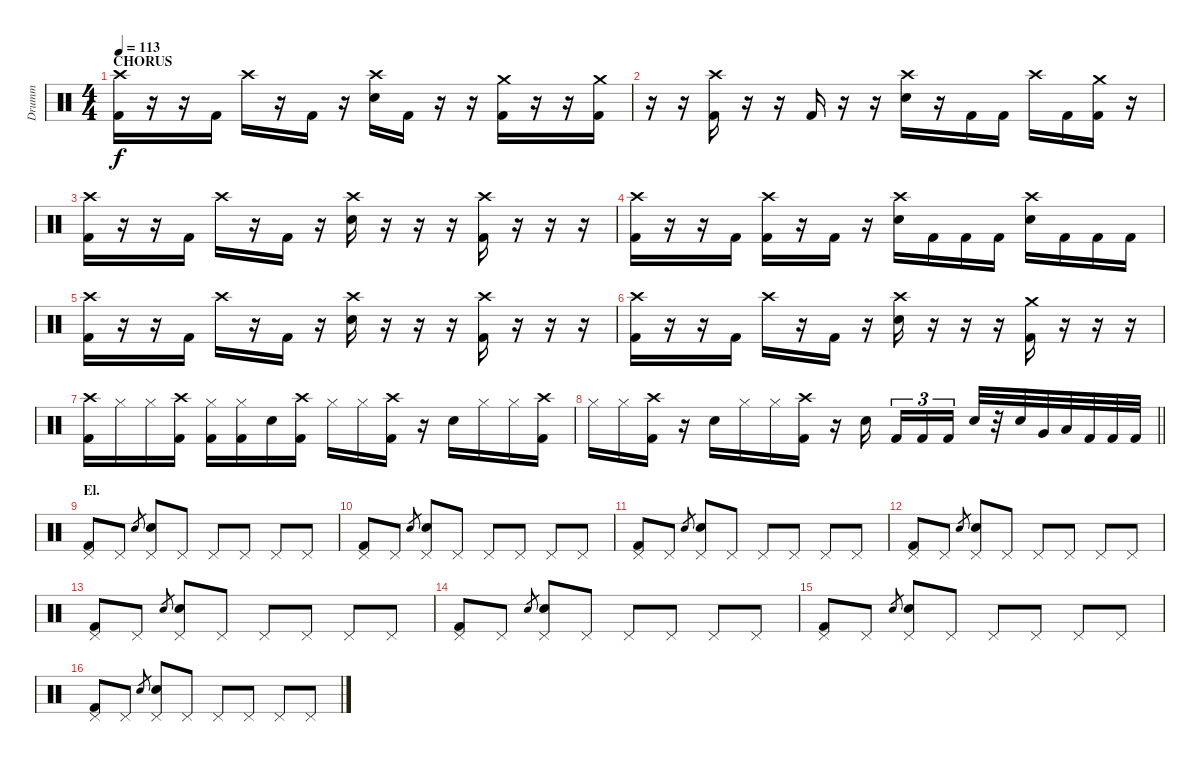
\track ("Drumm" "Drumm") {instrument percussion}
\staff {score}
\articulation defaults
\ts (4 4)
\section ("" "CHORUS")
\tempo 113
\clef neutral
\ks c
("Crash high (hit)" "Kick (hit) 2").16{dy f} r.16 r.16 "Kick (hit) 2".16 "Crash high (hit)".16 r.16 "Kick (hit) 2".16 r.16 ("Crash high (hit)" "Electric Snare (hit)").16 "Kick (hit) 2".16 r.16 r.16 ("Crash medium (hit)" "Kick (hit) 2").16 r.16 r.16 ("Crash medium (hit)" "Kick (hit) 2").16 |
r.16 r.16 ("Crash high (hit)" "Kick (hit) 2").16 r.16 r.16 "Kick (hit) 2".16 r.16 r.16 ("Crash high (hit)" "Electric Snare (hit)").16 r.16 "Kick (hit) 2".16 "Kick (hit) 2".16 "Crash high (hit)".16 "Kick (hit) 2".16 ("Crash medium (hit)" "Kick (hit) 2").16 r.16 |
("Crash high (hit)" "Kick (hit) 2").16 r.16 r.16 "Kick (hit) 2".16 "Crash high (hit)".16 r.16 "Kick (hit) 2".16 r.16 ("Crash high (hit)" "Electric Snare (hit)").16 r.16 r.16 r.16 ("Crash high (hit)" "Kick (hit) 2").16 r.16 r.16 r.16 |
("Crash high (hit)" "Kick (hit) 2").16 r.16 r.16 "Kick (hit) 2".16 ("Crash high (hit)" "Kick (hit) 2").16 r.16 "Kick (hit) 2".16 r.16 ("Crash high (hit)" "Electric Snare (hit)").16 "Kick (hit) 2".16 "Kick (hit) 2".16 "Kick (hit) 2".16 ("Crash high (hit)" "Electric Snare (hit)").16 "Kick (hit) 2".16 "Kick (hit) 2".16 "Kick (hit) 2".16 |
("Crash high (hit)" "Kick (hit) 2").16 r.16 r.16 "Kick (hit) 2".16 "Crash high (hit)".16 r.16 "Kick (hit) 2".16 r.16 ("Crash high (hit)" "Electric Snare (hit)").16 r.16 r.16 r.16 ("Crash high (hit)" "Kick (hit) 2").16 r.16 r.16 r.16 |
("Crash high (hit)" "Kick (hit) 2").16 r.16 r.16 "Kick (hit) 2".16 "Crash high (hit)".16 r.16 "Kick (hit) 2".16 r.16 ("Crash high (hit)" "Electric Snare (hit)").16 r.16 r.16 r.16 ("Crash medium (hit)" "Kick (hit) 2").16 r.16 r.16 r.16 |
("Crash high (hit)" "Kick (hit) 2").16 "Hi-Hat (closed)".16 "Hi-Hat (closed)".16 ("Crash high (hit)" "Kick (hit) 2").16 ("Hi-Hat (closed)" "Kick (hit) 2").16 ("Hi-Hat (closed)" "Kick (hit) 2").16 "Electric Snare (hit)".16 ("Crash high (hit)" "Kick (hit) 2").16 "Hi-Hat (closed)".16 "Hi-Hat (closed)".16 ("Crash high (hit)" "Kick (hit) 2").16 r.16 "Electric Snare (hit)".16 "Hi-Hat (closed)".16 "Hi-Hat (closed)".16 ("Crash high (hit)" "Kick (hit) 2").16 |
\barLineRight lightlight "Hi-Hat (closed)".16 "Hi-Hat (closed)".16
("Crash high (hit)" "Kick (hit) 2").16 r.16 "Electric Snare (hit)".16 "Hi-Hat (closed)".16 "Hi-Hat (closed)".16 ("Crash high (hit)" "Kick (hit) 2").16 r.16 "Electric Snare (hit)".16{beam splitsecondary} "Kick (hit) 2".16{tu (3 2)} "Kick (hit) 2".16{tu (3 2)} "Kick (hit) 2".16{tu (3 2)} "Electric Snare (hit)".32 r.32 "Electric Snare (hit)".32 "Very Low Tom (hit)".32 "Low Floor Tom (hit)".32 "Kick (hit) 2".32 "Kick (hit) 2".32 "Kick (hit) 2".32 |
\section ("" "El.")
("Pedal Hi-Hat (hit)" "Kick (hit) 2").8 "Pedal Hi-Hat (hit)".8 "Electric Snare (hit)".8{gr} ("Pedal Hi-Hat (hit)" "Electric Snare (hit)").8 "Pedal Hi-Hat (hit)".8 "Pedal Hi-Hat (hit)".8 "Pedal Hi-Hat (hit)".8 "Pedal Hi-Hat (hit)".8 "Pedal Hi-Hat (hit)".8 |
("Pedal Hi-Hat (hit)" "Kick (hit) 2").8 "Pedal Hi-Hat (hit)".8 "Electric Snare (hit)".8{gr} ("Pedal Hi-Hat (hit)" "Electric Snare (hit)").8 "Pedal Hi-Hat (hit)".8 "Pedal Hi-Hat (hit)".8 "Pedal Hi-Hat (hit)".8 "Pedal Hi-Hat (hit)".8 "Pedal Hi-Hat (hit)".8 |
("Pedal Hi-Hat (hit)" "Kick (hit) 2").8 "Pedal Hi-Hat (hit)".8 "Electric Snare (hit)".8{gr} ("Pedal Hi-Hat (hit)" "Electric Snare (hit)").8 "Pedal Hi-Hat (hit)".8 "Pedal Hi-Hat (hit)".8 "Pedal Hi-Hat (hit)".8 "Pedal Hi-Hat (hit)".8 "Pedal Hi-Hat (hit)".8 |
("Pedal Hi-Hat (hit)" "Kick (hit) 2").8 "Pedal Hi-Hat (hit)".8 "Electric Snare (hit)".8{gr} ("Pedal Hi-Hat (hit)" "Electric Snare (hit)").8 "Pedal Hi-Hat (hit)".8 "Pedal Hi-Hat (hit)".8 "Pedal Hi-Hat (hit)".8 "Pedal Hi-Hat (hit)".8 "Pedal Hi-Hat (hit)".8 |
("Pedal Hi-Hat (hit)" "Kick (hit) 2").8 "Pedal Hi-Hat (hit)".8 "Electric Snare (hit)".8{gr} ("Pedal Hi-Hat (hit)" "Electric Snare (hit)").8 "Pedal Hi-Hat (hit)".8 "Pedal Hi-Hat (hit)".8 "Pedal Hi-Hat (hit)".8 "Pedal Hi-Hat (hit)".8 "Pedal Hi-Hat (hit)".8 |
("Pedal Hi-Hat (hit)" "Kick (hit) 2").8 "Pedal Hi-Hat (hit)".8 "Electric Snare (hit)".8{gr} ("Pedal Hi-Hat (hit)" "Electric Snare (hit)").8 "Pedal Hi-Hat (hit)".8 "Pedal Hi-Hat (hit)".8 "Pedal Hi-Hat (hit)".8 "Pedal Hi-Hat (hit)".8 "Pedal Hi-Hat (hit)".8 |
("Pedal Hi-Hat (hit)" "Kick (hit) 2").8 "Pedal Hi-Hat (hit)".8 "Electric Snare (hit)".8{gr} ("Pedal Hi-Hat (hit)" "Electric Snare (hit)").8 "Pedal Hi-Hat (hit)".8 "Pedal Hi-Hat (hit)".8 "Pedal Hi-Hat (hit)".8 "Pedal Hi-Hat (hit)".8 "Pedal Hi-Hat (hit)".8 |
("Pedal Hi-Hat (hit)" "Kick (hit) 2").8 "Pedal Hi-Hat (hit)".8 "Electric Snare (hit)".8{gr} ("Pedal Hi-Hat (hit)" "Electric Snare (hit)").8 "Pedal Hi-Hat (hit)".8 "Pedal Hi-Hat (hit)".8 "Pedal Hi-Hat (hit)".8 "Pedal Hi-Hat (hit)".8 "Pedal Hi-Hat (hit)".8
